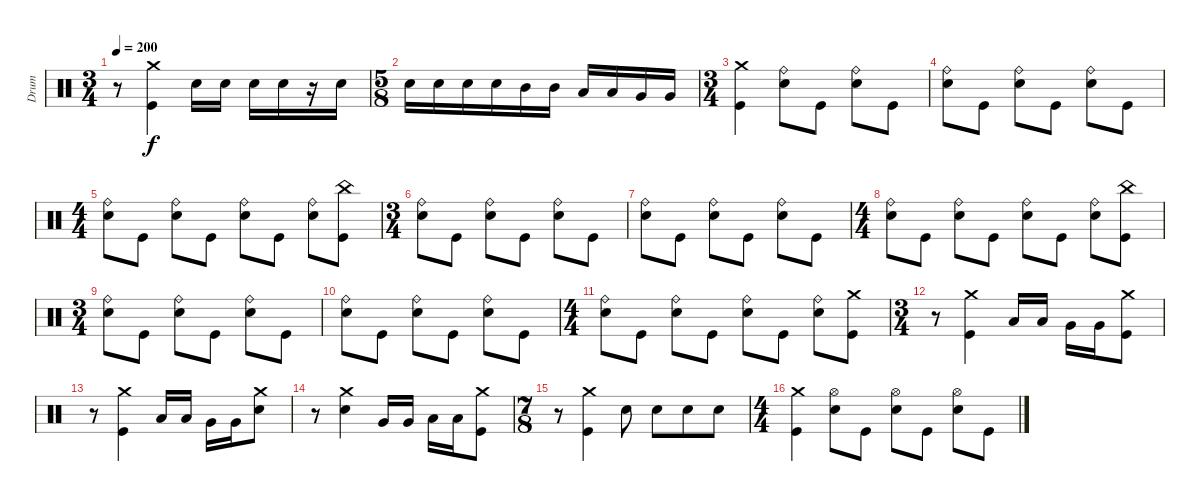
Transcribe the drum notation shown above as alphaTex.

\track ("Drum" "Drum") {instrument percussion}
\staff {score}
\articulation defaults
\ts (3 4)
\tempo 200
\clef neutral
\ks c
r.8{dy f} ("Kick (hit)" "Crash medium (hit)").4 "Electric Snare (hit)".16 "Electric Snare (hit)".16 "Electric Snare (hit)".16 "Electric Snare (hit)".16 r.16 "Electric Snare (hit)".16 |
\ts (5 8)
"Electric Snare (hit)".16 "Electric Snare (hit)".16 "Electric Snare (hit)".16 "Electric Snare (hit)".16 "Mid Tom (hit)".16 "Mid Tom (hit)".16 "Low Tom (hit)".16 "Low Tom (hit)".16 "Very Low Tom (hit)".16 "Very Low Tom (hit)".16 |
\ts (3 4)
("Kick (hit)" "Crash medium (hit)").4 ("Electric Snare (hit)" "Ride (bell)").8 "Kick (hit)".8 ("Electric Snare (hit)" "Ride (bell)").8 "Kick (hit)".8 |
("Electric Snare (hit)" "Ride (bell)").8 "Kick (hit)".8 ("Electric Snare (hit)" "Ride (bell)").8 "Kick (hit)".8 ("Electric Snare (hit)" "Ride (bell)").8 "Kick (hit)".8 |
\ts (4 4)
("Electric Snare (hit)" "Ride (bell)").8 "Kick (hit)".8 ("Electric Snare (hit)" "Ride (bell)").8 "Kick (hit)".8 ("Electric Snare (hit)" "Ride (bell)").8 "Kick (hit)".8 ("Electric Snare (hit)" "Ride (bell)").8 ("Kick (hit)" "China (hit)").8 |
\ts (3 4)
("Electric Snare (hit)" "Ride (bell)").8 "Kick (hit)".8 ("Electric Snare (hit)" "Ride (bell)").8 "Kick (hit)".8 ("Electric Snare (hit)" "Ride (bell)").8 "Kick (hit)".8 |
("Electric Snare (hit)" "Ride (bell)").8 "Kick (hit)".8 ("Electric Snare (hit)" "Ride (bell)").8 "Kick (hit)".8 ("Electric Snare (hit)" "Ride (bell)").8 "Kick (hit)".8 |
\ts (4 4)
("Electric Snare (hit)" "Ride (bell)").8 "Kick (hit)".8 ("Electric Snare (hit)" "Ride (bell)").8 "Kick (hit)".8 ("Electric Snare (hit)" "Ride (bell)").8 "Kick (hit)".8 ("Electric Snare (hit)" "Ride (bell)").8 ("Kick (hit)" "China (hit)").8 |
\ts (3 4)
("Electric Snare (hit)" "Ride (bell)").8 "Kick (hit)".8 ("Electric Snare (hit)" "Ride (bell)").8 "Kick (hit)".8 ("Electric Snare (hit)" "Ride (bell)").8 "Kick (hit)".8 |
("Electric Snare (hit)" "Ride (bell)").8 "Kick (hit)".8 ("Electric Snare (hit)" "Ride (bell)").8 "Kick (hit)".8 ("Electric Snare (hit)" "Ride (bell)").8 "Kick (hit)".8 |
\ts (4 4)
("Electric Snare (hit)" "Ride (bell)").8 "Kick (hit)".8 ("Electric Snare (hit)" "Ride (bell)").8 "Kick (hit)".8 ("Electric Snare (hit)" "Ride (bell)").8 "Kick (hit)".8 ("Electric Snare (hit)" "Ride (bell)").8 ("Kick (hit)" "Crash medium (hit)").8 |
\ts (3 4)
r.8 ("Kick (hit)" "Crash medium (hit)").4 "Low Tom (hit)".16 "Low Tom (hit)".16 "Very Low Tom (hit)".16 "Very Low Tom (hit)".16 ("Kick (hit)" "Crash medium (hit)").8 |
r.8 ("Kick (hit)" "Crash medium (hit)").4 "Low Tom (hit)".16 "Low Tom (hit)".16 "Very Low Tom (hit)".16 "Very Low Tom (hit)".16 ("Electric Snare (hit)" "Crash medium (hit)").8 |
r.8 ("Electric Snare (hit)" "Crash medium (hit)").4 "Very Low Tom (hit)".16 "Very Low Tom (hit)".16 "Low Tom (hit)".16 "Low Tom (hit)".16 ("Kick (hit)" "Crash medium (hit)").8 |
\ts (7 8)
r.8 ("Kick (hit)" "Crash medium (hit)").4 "Electric Snare (hit)".8 "Electric Snare (hit)".8 "Electric Snare (hit)".8 "Electric Snare (hit)".8 |
\ts (4 4)
("Kick (hit)" "Crash medium (hit)").4 ("Electric Snare (hit)" "Hi-Hat (open)").8 "Kick (hit)".8 ("Electric Snare (hit)" "Hi-Hat (open)").8 "Kick (hit)".8 ("Electric Snare (hit)" "Hi-Hat (open)").8 "Kick (hit)".8
